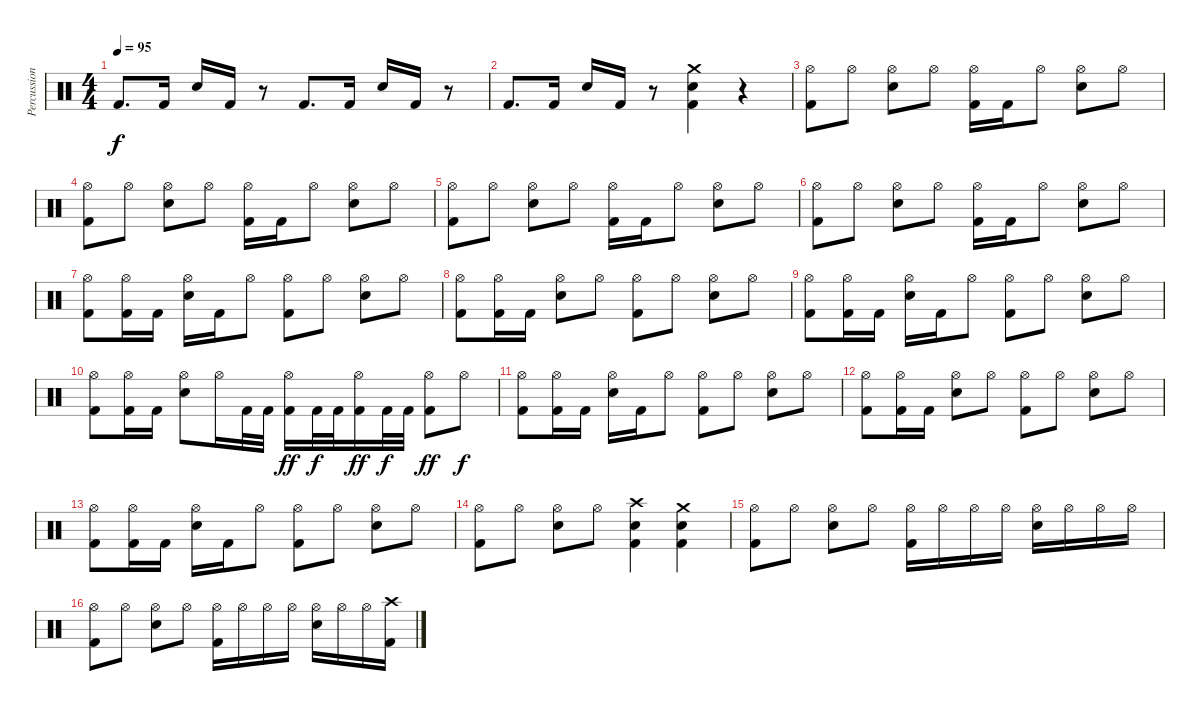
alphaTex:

\track ("Percussion" "Percussion") {instrument percussion}
\staff {score}
\articulation defaults
\ts (4 4)
\tempo 95
\clef neutral
\ks c "Kick (hit) 2".8{d dy f} "Kick (hit) 2".16 "Snare (hit) 2".16 "Kick (hit) 2".16
r.8 "Kick (hit) 2".8{d} "Kick (hit) 2".16 "Snare (hit) 2".16 "Kick (hit) 2".16 r.8 |
"Kick (hit) 2".8{d} "Kick (hit) 2".16 "Snare (hit) 2".16 "Kick (hit) 2".16 r.8 ("Crash medium (hit)" "Snare (hit) 2" "Kick (hit) 2").4 r.4 |
("Hi-Hat (open)" "Kick (hit) 2").8 "Hi-Hat (open)".8 ("Hi-Hat (open)" "Snare (hit) 2").8 "Hi-Hat (open)".8 ("Hi-Hat (open)" "Kick (hit) 2").16 "Kick (hit) 2".16 "Hi-Hat (open)".8 ("Hi-Hat (open)" "Snare (hit) 2").8 "Hi-Hat (open)".8 |
("Hi-Hat (open)" "Kick (hit) 2").8 "Hi-Hat (open)".8 ("Hi-Hat (open)" "Snare (hit) 2").8 "Hi-Hat (open)".8 ("Hi-Hat (open)" "Kick (hit) 2").16 "Kick (hit) 2".16 "Hi-Hat (open)".8 ("Hi-Hat (open)" "Snare (hit) 2").8 "Hi-Hat (open)".8 |
("Hi-Hat (open)" "Kick (hit) 2").8 "Hi-Hat (open)".8 ("Hi-Hat (open)" "Snare (hit) 2").8 "Hi-Hat (open)".8 ("Hi-Hat (open)" "Kick (hit) 2").16 "Kick (hit) 2".16 "Hi-Hat (open)".8 ("Hi-Hat (open)" "Snare (hit) 2").8 "Hi-Hat (open)".8 |
("Hi-Hat (open)" "Kick (hit) 2").8 "Hi-Hat (open)".8 ("Hi-Hat (open)" "Snare (hit) 2").8 "Hi-Hat (open)".8 ("Hi-Hat (open)" "Kick (hit) 2").16 "Kick (hit) 2".16 "Hi-Hat (open)".8 ("Hi-Hat (open)" "Snare (hit) 2").8 "Hi-Hat (open)".8 |
("Hi-Hat (open)" "Kick (hit) 2").8 ("Hi-Hat (open)" "Kick (hit) 2").16 "Kick (hit) 2".16 ("Hi-Hat (open)" "Snare (hit) 2").16 "Kick (hit) 2".16 "Hi-Hat (open)".8 ("Hi-Hat (open)" "Kick (hit) 2").8 "Hi-Hat (open)".8 ("Hi-Hat (open)" "Snare (hit) 2").8 "Hi-Hat (open)".8 |
("Hi-Hat (open)" "Kick (hit) 2").8 ("Hi-Hat (open)" "Kick (hit) 2").16 "Kick (hit) 2".16 ("Hi-Hat (open)" "Snare (hit) 2").8 "Hi-Hat (open)".8 ("Hi-Hat (open)" "Kick (hit) 2").8 "Hi-Hat (open)".8 ("Hi-Hat (open)" "Snare (hit) 2").8 "Hi-Hat (open)".8 |
("Hi-Hat (open)" "Kick (hit) 2").8 ("Hi-Hat (open)" "Kick (hit) 2").16 "Kick (hit) 2".16 ("Hi-Hat (open)" "Snare (hit) 2").16 "Kick (hit) 2".16 "Hi-Hat (open)".8 ("Hi-Hat (open)" "Kick (hit) 2").8 "Hi-Hat (open)".8 ("Hi-Hat (open)" "Snare (hit) 2").8 "Hi-Hat (open)".8 |
("Hi-Hat (open)" "Kick (hit) 2").8 ("Hi-Hat (open)" "Kick (hit) 2").16 "Kick (hit) 2".16 ("Hi-Hat (open)" "Snare (hit) 2").8 "Hi-Hat (open)".16 "Kick (hit) 2".32 "Kick (hit) 2".32 ("Hi-Hat (open)" "Kick (hit) 2").16{dy ff} "Kick (hit) 2".32{dy f} "Kick (hit) 2".32 ("Hi-Hat (open)" "Kick (hit) 2").16{dy ff} "Kick (hit) 2".32{dy f} "Kick (hit) 2".32 ("Hi-Hat (open)" "Kick (hit) 2").8{dy ff} "Hi-Hat (open)".8{dy f} |
("Hi-Hat (open)" "Kick (hit) 2").8 ("Hi-Hat (open)" "Kick (hit) 2").16 "Kick (hit) 2".16 ("Hi-Hat (open)" "Snare (hit) 2").16 "Kick (hit) 2".16 "Hi-Hat (open)".8 ("Hi-Hat (open)" "Kick (hit) 2").8 "Hi-Hat (open)".8 ("Hi-Hat (open)" "Snare (hit) 2").8 "Hi-Hat (open)".8 |
("Hi-Hat (open)" "Kick (hit) 2").8 ("Hi-Hat (open)" "Kick (hit) 2").16 "Kick (hit) 2".16 ("Hi-Hat (open)" "Snare (hit) 2").8 "Hi-Hat (open)".8 ("Hi-Hat (open)" "Kick (hit) 2").8 "Hi-Hat (open)".8 ("Hi-Hat (open)" "Snare (hit) 2").8 "Hi-Hat (open)".8 |
("Hi-Hat (open)" "Kick (hit) 2").8 ("Hi-Hat (open)" "Kick (hit) 2").16 "Kick (hit) 2".16 ("Hi-Hat (open)" "Snare (hit) 2").16 "Kick (hit) 2".16 "Hi-Hat (open)".8 ("Hi-Hat (open)" "Kick (hit) 2").8 "Hi-Hat (open)".8 ("Hi-Hat (open)" "Snare (hit) 2").8 "Hi-Hat (open)".8 |
("Hi-Hat (open)" "Kick (hit) 2").8 "Hi-Hat (open)".8 ("Hi-Hat (open)" "Snare (hit) 2").8 "Hi-Hat (open)".8 ("Crash high (hit)" "Snare (hit) 2" "Kick (hit) 2").4 ("Crash medium (hit)" "Snare (hit) 2" "Kick (hit) 2").4 |
("Hi-Hat (open)" "Kick (hit) 2").8 "Hi-Hat (open)".8 ("Hi-Hat (open)" "Snare (hit) 2").8 "Hi-Hat (open)".8 ("Hi-Hat (open)" "Kick (hit) 2").16 "Hi-Hat (open)".16 "Hi-Hat (open)".16 "Hi-Hat (open)".16 ("Hi-Hat (open)" "Snare (hit) 2").16 "Hi-Hat (open)".16 "Hi-Hat (open)".16 "Hi-Hat (open)".16 |
("Hi-Hat (open)" "Kick (hit) 2").8 "Hi-Hat (open)".8 ("Hi-Hat (open)" "Snare (hit) 2").8 "Hi-Hat (open)".8 ("Hi-Hat (open)" "Kick (hit) 2").16 "Hi-Hat (open)".16 "Hi-Hat (open)".16 "Hi-Hat (open)".16 ("Hi-Hat (open)" "Snare (hit) 2").16 "Hi-Hat (open)".16 "Hi-Hat (open)".16 ("Crash high (hit)" "Kick (hit) 2").16
